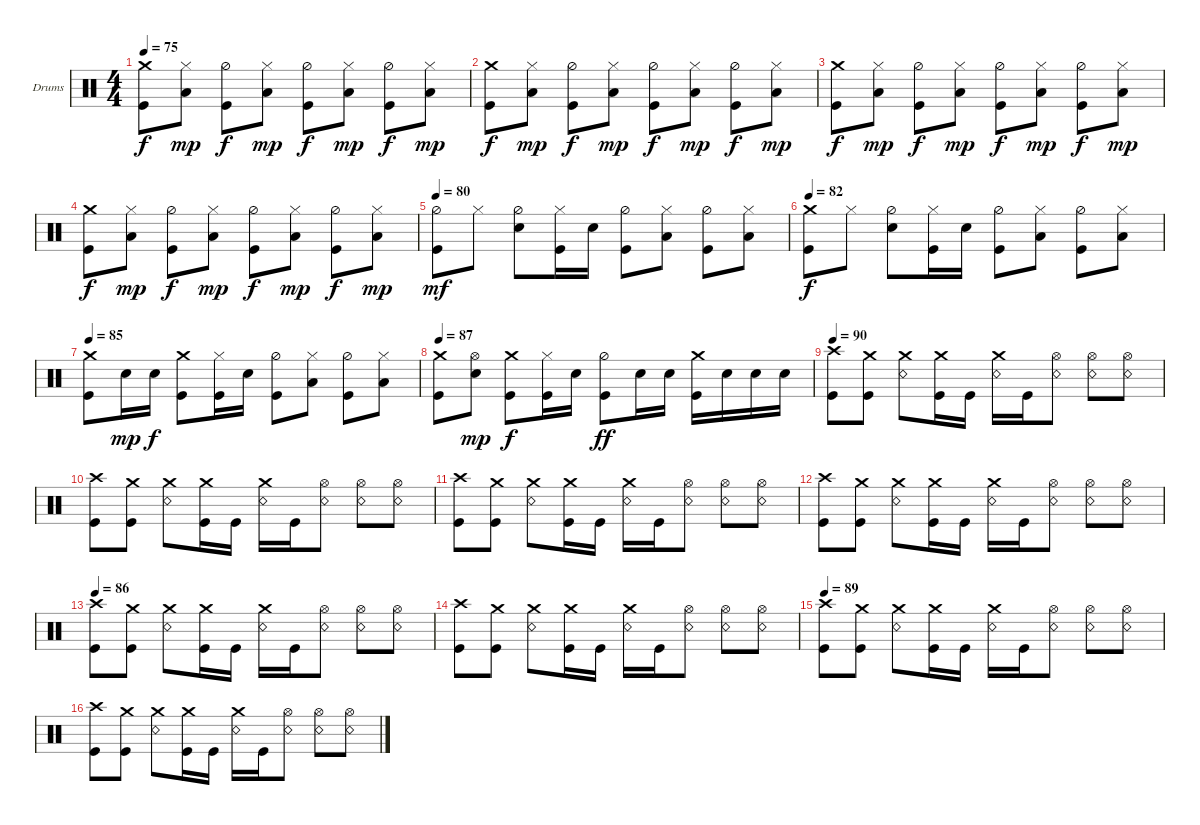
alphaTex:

\defaultSystemsLayout 4
\bracketExtendMode groupsimilarinstruments
\firstSystemTrackNameOrientation horizontal
\otherSystemsTrackNameOrientation horizontal
\track ("Jeremiah Green" "Drums") {instrument percussion}
\staff {score}
\articulation defaults
\ts (4 4)
\tempo 75
\clef neutral
\scale
0.333333
\ks c
("Kick (hit)" "Crash medium (hit)").8{dy f} ("Low Tom (hit)" "Hi-Hat (closed)").8{dy mp} ("Kick (hit)" "Hi-Hat (half)").8{dy f} ("Low Tom (hit)" "Hi-Hat (closed)").8{dy mp} ("Kick (hit)" "Hi-Hat (half)").8{dy f} ("Low Tom (hit)" "Hi-Hat (closed)").8{dy mp} ("Kick (hit)" "Hi-Hat (half)").8{dy f} ("Low Tom (hit)" "Hi-Hat (closed)").8{dy mp} |
\scale
0.333333 ("Kick (hit)" "Crash medium (hit)").8{dy f} ("Low Tom (hit)" "Hi-Hat (closed)").8{dy mp} ("Kick (hit)" "Hi-Hat (half)").8{dy f} ("Low Tom (hit)" "Hi-Hat (closed)").8{dy mp} ("Kick (hit)" "Hi-Hat (half)").8{dy f} ("Low Tom (hit)" "Hi-Hat (closed)").8{dy mp} ("Kick (hit)" "Hi-Hat (half)").8{dy f} ("Low Tom (hit)" "Hi-Hat (closed)").8{dy mp} |
\scale
0.333333 ("Kick (hit)" "Crash medium (hit)").8{dy f} ("Low Tom (hit)" "Hi-Hat (closed)").8{dy mp} ("Kick (hit)" "Hi-Hat (half)").8{dy f} ("Low Tom (hit)" "Hi-Hat (closed)").8{dy mp} ("Kick (hit)" "Hi-Hat (half)").8{dy f} ("Low Tom (hit)" "Hi-Hat (closed)").8{dy mp} ("Kick (hit)" "Hi-Hat (half)").8{dy f} ("Low Tom (hit)" "Hi-Hat (closed)").8{dy mp} |
\scale
0.333333 ("Kick (hit)" "Crash medium (hit)").8{dy f} ("Low Tom (hit)" "Hi-Hat (closed)").8{dy mp} ("Kick (hit)" "Hi-Hat (half)").8{dy f} ("Low Tom (hit)" "Hi-Hat (closed)").8{dy mp} ("Kick (hit)" "Hi-Hat (half)").8{dy f} ("Low Tom (hit)" "Hi-Hat (closed)").8{dy mp} ("Kick (hit)" "Hi-Hat (half)").8{dy f} ("Low Tom (hit)" "Hi-Hat (closed)").8{dy mp} |
\tempo 80
\scale
0.333333 ("Kick (hit)" "Hi-Hat (half)").8{dy mf} "Hi-Hat (closed)".8 ("Hi-Hat (half)" "Snare (hit) 2").8 ("Kick (hit)" "Hi-Hat (closed)").16 "Snare (hit) 2".16 ("Kick (hit)" "Hi-Hat (half)").8 ("Low Tom (hit)" "Hi-Hat (closed)").8 ("Kick (hit)" "Hi-Hat (half)").8 ("Low Tom (hit)" "Hi-Hat (closed)").8 |
\tempo 82
\scale
0.333333 ("Kick (hit)" "Crash medium (hit)").8{dy f} "Hi-Hat (closed)".8 ("Hi-Hat (half)" "Snare (hit) 2").8 ("Kick (hit)" "Hi-Hat (closed)").16 "Snare (hit) 2".16 ("Kick (hit)" "Hi-Hat (half)").8 ("Low Tom (hit)" "Hi-Hat (closed)").8 ("Kick (hit)" "Hi-Hat (half)").8 ("Low Tom (hit)" "Hi-Hat (closed)").8 |
\tempo 85
\scale
0.333333 ("Kick (hit)" "Crash medium (hit)").8 "Snare (hit) 2".16{dy mp} "Snare (hit) 2".16{dy f} ("Kick (hit)" "Crash medium (hit)").8 ("Kick (hit)" "Hi-Hat (closed)").16 "Snare (hit) 2".16 ("Kick (hit)" "Hi-Hat (half)").8 ("Low Tom (hit)" "Hi-Hat (closed)").8 ("Kick (hit)" "Hi-Hat (half)").8 ("Low Tom (hit)" "Hi-Hat (closed)").8 |
\tempo 87
\scale
0.333333 ("Kick (hit)" "Crash medium (hit)").8 ("Snare (hit) 2" "Hi-Hat (open)").8{dy mp} ("Kick (hit)" "Crash medium (hit)").8{dy f} ("Kick (hit)" "Hi-Hat (closed)").16 "Snare (hit) 2".16 ("Kick (hit)" "Hi-Hat (half)").8{dy ff} "Snare (hit) 2".16 "Snare (hit) 2".16 ("Kick (hit)" "Crash medium (hit)").16 "Snare (hit) 2".16 "Snare (hit) 2".16 "Snare (hit) 2".16 |
\tempo 90
\scale
0.333333 ("Kick (hit)" "Crash high (hit)").8 ("Crash medium (hit)" "Kick (hit)").8 ("Snare (rim shot)" "Crash medium (hit)").8 ("Kick (hit)" "Crash medium (hit)").16 "Kick (hit)".16 ("Snare (rim shot)" "Crash medium (hit)").16 "Kick (hit)".16 ("Snare (rim shot)" "Hi-Hat (open)").8 ("Hi-Hat (open)" "Snare (rim shot)").8 ("Snare (rim shot)" "Hi-Hat (open)").8 |
\scale
0.333333 ("Kick (hit)" "Crash high (hit)").8 ("Crash medium (hit)" "Kick (hit)").8 ("Snare (rim shot)" "Crash medium (hit)").8 ("Kick (hit)" "Crash medium (hit)").16 "Kick (hit)".16 ("Snare (rim shot)" "Crash medium (hit)").16 "Kick (hit)".16 ("Snare (rim shot)" "Hi-Hat (open)").8 ("Hi-Hat (open)" "Snare (rim shot)").8 ("Snare (rim shot)" "Hi-Hat (open)").8 |
\scale
0.333333 ("Kick (hit)" "Crash high (hit)").8 ("Crash medium (hit)" "Kick (hit)").8 ("Snare (rim shot)" "Crash medium (hit)").8 ("Kick (hit)" "Crash medium (hit)").16 "Kick (hit)".16 ("Snare (rim shot)" "Crash medium (hit)").16 "Kick (hit)".16 ("Snare (rim shot)" "Hi-Hat (open)").8 ("Hi-Hat (open)" "Snare (rim shot)").8 ("Snare (rim shot)" "Hi-Hat (open)").8 |
\scale
0.333333 ("Kick (hit)" "Crash high (hit)").8 ("Crash medium (hit)" "Kick (hit)").8 ("Snare (rim shot)" "Crash medium (hit)").8 ("Kick (hit)" "Crash medium (hit)").16 "Kick (hit)".16 ("Snare (rim shot)" "Crash medium (hit)").16 "Kick (hit)".16 ("Snare (rim shot)" "Hi-Hat (open)").8 ("Hi-Hat (open)" "Snare (rim shot)").8 ("Snare (rim shot)" "Hi-Hat (open)").8 |
\tempo 86
\scale
0.333333 ("Kick (hit)" "Crash high (hit)").8 ("Crash medium (hit)" "Kick (hit)").8 ("Snare (rim shot)" "Crash medium (hit)").8 ("Kick (hit)" "Crash medium (hit)").16 "Kick (hit)".16 ("Snare (rim shot)" "Crash medium (hit)").16 "Kick (hit)".16 ("Snare (rim shot)" "Hi-Hat (open)").8 ("Hi-Hat (open)" "Snare (rim shot)").8 ("Snare (rim shot)" "Hi-Hat (open)").8 |
\scale
0.333333 ("Kick (hit)" "Crash high (hit)").8 ("Crash medium (hit)" "Kick (hit)").8 ("Snare (rim shot)" "Crash medium (hit)").8 ("Kick (hit)" "Crash medium (hit)").16 "Kick (hit)".16 ("Snare (rim shot)" "Crash medium (hit)").16 "Kick (hit)".16 ("Snare (rim shot)" "Hi-Hat (open)").8 ("Hi-Hat (open)" "Snare (rim shot)").8 ("Snare (rim shot)" "Hi-Hat (open)").8 |
\tempo 89
\scale
0.333333 ("Kick (hit)" "Crash high (hit)").8 ("Crash medium (hit)" "Kick (hit)").8 ("Snare (rim shot)" "Crash medium (hit)").8 ("Kick (hit)" "Crash medium (hit)").16 "Kick (hit)".16 ("Snare (rim shot)" "Crash medium (hit)").16 "Kick (hit)".16 ("Snare (rim shot)" "Hi-Hat (open)").8 ("Hi-Hat (open)" "Snare (rim shot)").8 ("Snare (rim shot)" "Hi-Hat (open)").8 |
\scale
0.333333 ("Kick (hit)" "Crash high (hit)").8 ("Crash medium (hit)" "Kick (hit)").8 ("Snare (rim shot)" "Crash medium (hit)").8 ("Kick (hit)" "Crash medium (hit)").16 "Kick (hit)".16 ("Snare (rim shot)" "Crash medium (hit)").16 "Kick (hit)".16 ("Snare (rim shot)" "Hi-Hat (open)").8 ("Hi-Hat (open)" "Snare (rim shot)").8 ("Snare (rim shot)" "Hi-Hat (open)").8
